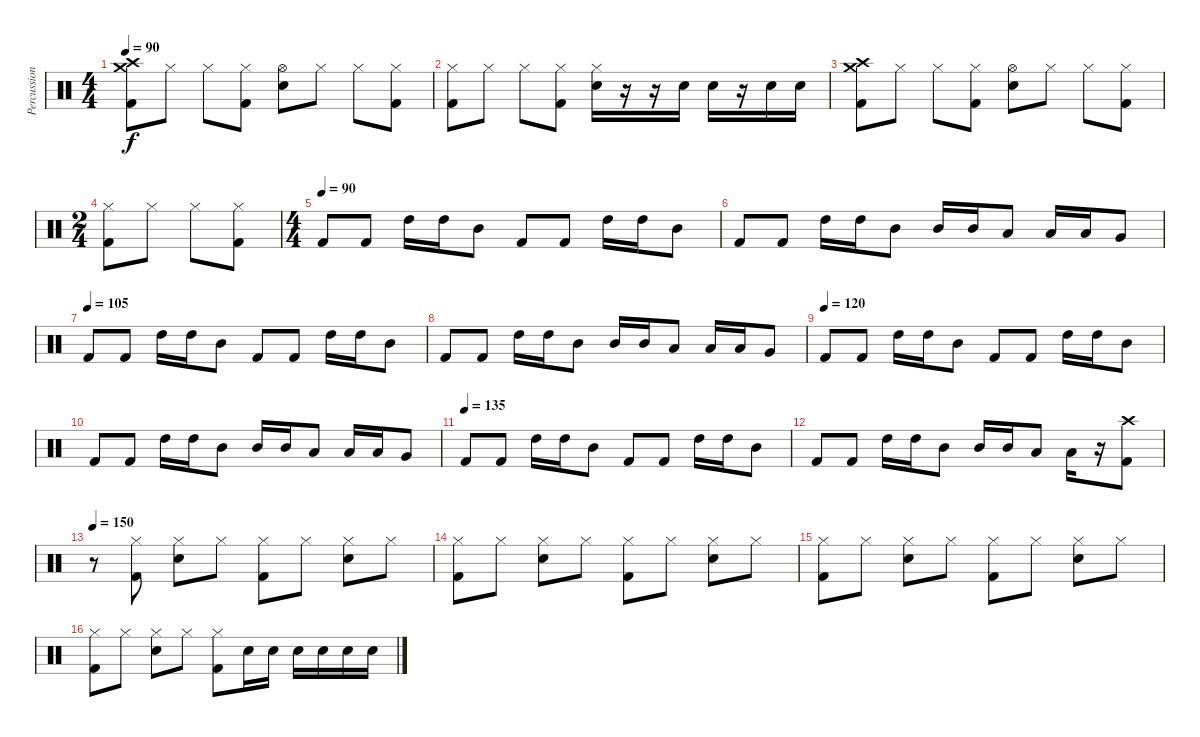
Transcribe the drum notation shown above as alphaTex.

\track ("Percussion" "Percussion") {instrument percussion}
\staff {score}
\articulation defaults
\ts (4 4)
\tempo 90
\clef neutral
\ks c
("Crash high (hit)" "Crash medium (hit)" "Kick (hit) 2").8{dy f} "Hi-Hat (closed)".8 "Hi-Hat (closed)".8 ("Hi-Hat (closed)" "Kick (hit) 2").8 ("Hi-Hat (open)" "Snare (hit) 2").8 "Hi-Hat (closed)".8 "Hi-Hat (closed)".8 ("Hi-Hat (closed)" "Kick (hit) 2").8 |
("Hi-Hat (closed)" "Kick (hit) 2").8 "Hi-Hat (closed)".8 "Hi-Hat (closed)".8 ("Hi-Hat (closed)" "Kick (hit) 2").8 ("Hi-Hat (closed)" "Snare (hit) 2").16 r.16 r.16 "Snare (hit) 2".16 "Snare (hit) 2".16 r.16 "Snare (hit) 2".16 "Snare (hit) 2".16 |
("Crash high (hit)" "Crash medium (hit)" "Kick (hit) 2").8 "Hi-Hat (closed)".8 "Hi-Hat (closed)".8 ("Hi-Hat (closed)" "Kick (hit) 2").8 ("Hi-Hat (open)" "Snare (hit) 2").8 "Hi-Hat (closed)".8 "Hi-Hat (closed)".8 ("Hi-Hat (closed)" "Kick (hit) 2").8 |
\ts (2 4)
("Hi-Hat (closed)" "Kick (hit) 2").8 "Hi-Hat (closed)".8 "Hi-Hat (closed)".8 ("Hi-Hat (closed)" "Kick (hit) 2").8 |
\ts (4 4)
\tempo (90)
"Kick (hit) 2".8 "Kick (hit) 2".8 "High Tom (hit)".16 "High Tom (hit)".16 "Mid Tom (hit)".8 "Kick (hit) 2".8 "Kick (hit) 2".8 "High Tom (hit)".16 "High Tom (hit)".16 "Mid Tom (hit)".8 |
"Kick (hit) 2".8 "Kick (hit) 2".8 "High Tom (hit)".16 "High Tom (hit)".16 "Mid Tom (hit)".8 "Mid Tom (hit)".16 "Mid Tom (hit)".16 "Low Tom (hit)".8 "Low Tom (hit)".16 "Low Tom (hit)".16 "Very Low Tom (hit)".8 |
\tempo (105)
"Kick (hit) 2".8 "Kick (hit) 2".8 "High Tom (hit)".16 "High Tom (hit)".16 "Mid Tom (hit)".8 "Kick (hit) 2".8 "Kick (hit) 2".8 "High Tom (hit)".16 "High Tom (hit)".16 "Mid Tom (hit)".8 |
"Kick (hit) 2".8 "Kick (hit) 2".8 "High Tom (hit)".16 "High Tom (hit)".16 "Mid Tom (hit)".8 "Mid Tom (hit)".16 "Mid Tom (hit)".16 "Low Tom (hit)".8 "Low Tom (hit)".16 "Low Tom (hit)".16 "Very Low Tom (hit)".8 |
\tempo (120)
"Kick (hit) 2".8 "Kick (hit) 2".8 "High Tom (hit)".16 "High Tom (hit)".16 "Mid Tom (hit)".8 "Kick (hit) 2".8 "Kick (hit) 2".8 "High Tom (hit)".16 "High Tom (hit)".16 "Mid Tom (hit)".8 |
"Kick (hit) 2".8 "Kick (hit) 2".8 "High Tom (hit)".16 "High Tom (hit)".16 "Mid Tom (hit)".8 "Mid Tom (hit)".16 "Mid Tom (hit)".16 "Low Tom (hit)".8 "Low Tom (hit)".16 "Low Tom (hit)".16 "Very Low Tom (hit)".8 |
\tempo (135)
"Kick (hit) 2".8 "Kick (hit) 2".8 "High Tom (hit)".16 "High Tom (hit)".16 "Mid Tom (hit)".8 "Kick (hit) 2".8 "Kick (hit) 2".8 "High Tom (hit)".16 "High Tom (hit)".16 "Mid Tom (hit)".8 |
"Kick (hit) 2".8 "Kick (hit) 2".8 "High Tom (hit)".16 "High Tom (hit)".16 "Mid Tom (hit)".8 "Mid Tom (hit)".16 "Mid Tom (hit)".16 "Low Tom (hit)".8 "Low Tom (hit)".16 r.16 ("Crash high (hit)" "Kick (hit) 2").8 |
\tempo 150
r.8 ("Hi-Hat (closed)" "Kick (hit) 2").8 ("Hi-Hat (closed)" "Snare (hit) 2").8 "Hi-Hat (closed)".8 ("Hi-Hat (closed)" "Kick (hit) 2").8 "Hi-Hat (closed)".8 ("Hi-Hat (closed)" "Snare (hit) 2").8 "Hi-Hat (closed)".8 |
("Hi-Hat (closed)" "Kick (hit) 2").8 "Hi-Hat (closed)".8 ("Hi-Hat (closed)" "Snare (hit) 2").8 "Hi-Hat (closed)".8 ("Hi-Hat (closed)" "Kick (hit) 2").8 "Hi-Hat (closed)".8 ("Hi-Hat (closed)" "Snare (hit) 2").8 "Hi-Hat (closed)".8 |
("Hi-Hat (closed)" "Kick (hit) 2").8 "Hi-Hat (closed)".8 ("Hi-Hat (closed)" "Snare (hit) 2").8 "Hi-Hat (closed)".8 ("Hi-Hat (closed)" "Kick (hit) 2").8 "Hi-Hat (closed)".8 ("Hi-Hat (closed)" "Snare (hit) 2").8 "Hi-Hat (closed)".8 |
("Hi-Hat (closed)" "Kick (hit) 2").8 "Hi-Hat (closed)".8 ("Hi-Hat (closed)" "Snare (hit) 2").8 "Hi-Hat (closed)".8 ("Hi-Hat (closed)" "Kick (hit) 2").8 "Snare (hit) 2".16 "Snare (hit) 2".16 "Snare (hit) 2".16 "Snare (hit) 2".16 "Snare (hit) 2".16 "Snare (hit) 2".16
